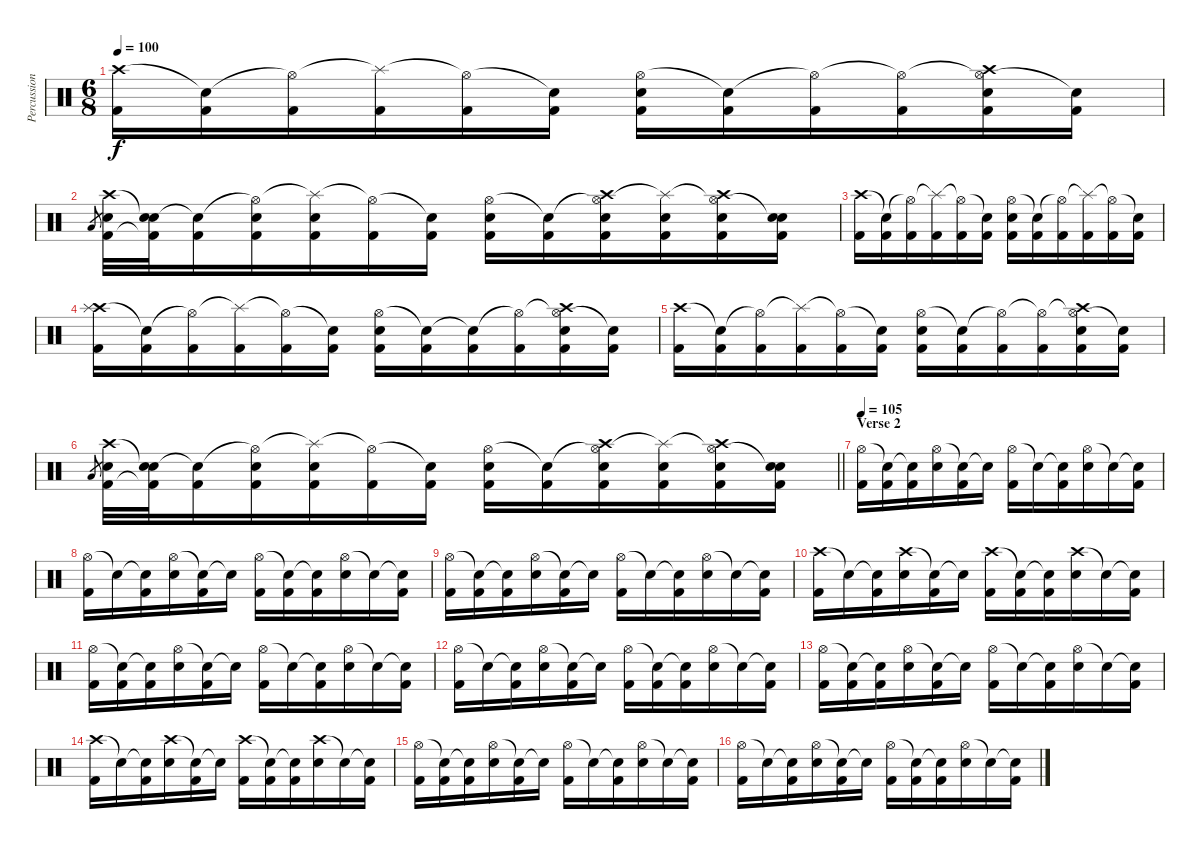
\track ("Percussion" "Percussion") {instrument percussion}
\staff {score}
\articulation defaults
\ts (6 8)
\tempo 100
\clef neutral
\ks c
("Crash high (hit)" "Kick (hit) 2").16{dy f} ("Snare (hit)"{t} "Kick (hit) 2").16 ("Hi-Hat (open)"{t} "Kick (hit) 2").16 ("Splash (hit)"{t} "Kick (hit) 2").16 ("Hi-Hat (open)"{t} "Kick (hit) 2").16 ("Snare (hit)"{t} "Kick (hit) 2").16 ("Hi-Hat (open)" "Electric Snare (hit)" "Kick (hit) 2").16 ("Snare (hit)"{t} "Kick (hit) 2").16 ("Hi-Hat (open)"{t} "Kick (hit) 2").16 ("Hi-Hat (open)"{t} "Kick (hit) 2").16 ("Hi-Hat (open)"{t} "Crash high (hit)" "Electric Snare (hit)" "Kick (hit) 2").16 ("Snare (hit)"{t} "Kick (hit) 2").16 |
"Low Tom (hit)".8{gr} ("Crash high (hit)" "Electric Snare (hit)" "Kick (hit) 2").32 ("Snare (hit)"{t} "Electric Snare (hit)" "Kick (hit) 2"{t}).32 ("Snare (hit)"{t} "Kick (hit) 2").16 ("Hi-Hat (open)"{t} "Electric Snare (hit)" "Kick (hit) 2").16 ("Splash (hit)"{t} "Electric Snare (hit)" "Kick (hit) 2").16 ("Hi-Hat (open)"{t} "Kick (hit) 2").16 ("Snare (hit)"{t} "Kick (hit) 2").16 ("Hi-Hat (open)" "Electric Snare (hit)" "Kick (hit) 2").16 ("Snare (hit)"{t} "Kick (hit) 2").16 ("Hi-Hat (open)"{t} "Crash high (hit)" "Electric Snare (hit)" "Kick (hit) 2").16 ("Splash (hit)"{t} "Electric Snare (hit)" "Kick (hit) 2").16 ("Hi-Hat (open)"{t} "Crash high (hit)" "Electric Snare (hit)" "Kick (hit) 2").16 ("Snare (hit)"{t} "Electric Snare (hit)" "Kick (hit) 2").16 |
("Crash high (hit)" "Kick (hit) 2").16 ("Snare (hit)"{t} "Kick (hit) 2").16 ("Hi-Hat (open)"{t} "Kick (hit) 2").16 ("Splash (hit)"{t} "Kick (hit) 2").16 ("Hi-Hat (open)"{t} "Kick (hit) 2").16 ("Snare (hit)"{t} "Kick (hit) 2").16 ("Hi-Hat (open)" "Electric Snare (hit)" "Kick (hit) 2").16 ("Snare (hit)"{t} "Kick (hit) 2").16 ("Hi-Hat (open)"{t} "Kick (hit) 2").16 ("Splash (hit)"{t} "Kick (hit) 2").16 ("Hi-Hat (open)"{t} "Kick (hit) 2").16 ("Snare (hit)"{t} "Kick (hit) 2").16 |
("Crash high (hit)" "Splash (hit)" "Kick (hit) 2").16 ("Snare (hit)"{t} "Kick (hit) 2").16 ("Hi-Hat (open)"{t} "Kick (hit) 2").16 ("Splash (hit)"{t} "Kick (hit) 2").16 ("Hi-Hat (open)"{t} "Kick (hit) 2").16 ("Snare (hit)"{t} "Kick (hit) 2").16 ("Hi-Hat (open)" "Electric Snare (hit)" "Kick (hit) 2").16 ("Snare (hit)"{t} "Kick (hit) 2").16 ("Snare (hit)"{t} "Kick (hit) 2").16 ("Hi-Hat (open)"{t} "Kick (hit) 2").16 ("Hi-Hat (open)"{t} "Crash high (hit)" "Electric Snare (hit)" "Kick (hit) 2").16 ("Snare (hit)"{t} "Kick (hit) 2").16 |
("Crash high (hit)" "Kick (hit) 2").16 ("Snare (hit)"{t} "Kick (hit) 2").16 ("Hi-Hat (open)"{t} "Kick (hit) 2").16 ("Splash (hit)"{t} "Kick (hit) 2").16 ("Hi-Hat (open)"{t} "Kick (hit) 2").16 ("Snare (hit)"{t} "Kick (hit) 2").16 ("Hi-Hat (open)" "Electric Snare (hit)" "Kick (hit) 2").16 ("Snare (hit)"{t} "Kick (hit) 2").16 ("Hi-Hat (open)"{t} "Kick (hit) 2").16 ("Hi-Hat (open)"{t} "Kick (hit) 2").16 ("Hi-Hat (open)"{t} "Crash high (hit)" "Electric Snare (hit)" "Kick (hit) 2").16 ("Snare (hit)"{t} "Kick (hit) 2").16 |
\barLineRight lightlight "Low Tom (hit)".8{gr}
("Crash high (hit)" "Electric Snare (hit)" "Kick (hit) 2").32 ("Snare (hit)"{t} "Electric Snare (hit)" "Kick (hit) 2"{t}).32 ("Snare (hit)"{t} "Kick (hit) 2").16 ("Hi-Hat (open)"{t} "Electric Snare (hit)" "Kick (hit) 2").16 ("Splash (hit)"{t} "Electric Snare (hit)" "Kick (hit) 2").16 ("Hi-Hat (open)"{t} "Kick (hit) 2").16 ("Snare (hit)"{t} "Kick (hit) 2").16 ("Hi-Hat (open)" "Electric Snare (hit)" "Kick (hit) 2").16 ("Snare (hit)"{t} "Kick (hit) 2").16 ("Hi-Hat (open)"{t} "Crash high (hit)" "Electric Snare (hit)" "Kick (hit) 2").16 ("Splash (hit)"{t} "Electric Snare (hit)" "Kick (hit) 2").16 ("Hi-Hat (open)"{t} "Crash high (hit)" "Electric Snare (hit)" "Kick (hit) 2").16 ("Snare (hit)"{t} "Electric Snare (hit)" "Kick (hit) 2").16 |
\section ("" "Verse 2")
\tempo 105
("Hi-Hat (open)" "Kick (hit) 2").16 ("Snare (hit)"{t} "Kick (hit) 2").16 ("Snare (hit)"{t} "Kick (hit) 2").16 ("Hi-Hat (open)" "Electric Snare (hit)").16 ("Snare (hit)"{t} "Kick (hit) 2").16 "Snare (hit)"{t}.16 ("Hi-Hat (open)" "Kick (hit) 2").16 "Snare (hit)"{t}.16 ("Snare (hit)"{t} "Kick (hit) 2").16 ("Hi-Hat (open)" "Electric Snare (hit)").16 "Snare (hit)"{t}.16 ("Snare (hit)"{t} "Kick (hit) 2").16 |
("Hi-Hat (open)" "Kick (hit) 2").16 "Snare (hit)"{t}.16 ("Snare (hit)"{t} "Kick (hit) 2").16 ("Hi-Hat (open)" "Electric Snare (hit)").16 ("Snare (hit)"{t} "Kick (hit) 2").16 "Snare (hit)"{t}.16 ("Hi-Hat (open)" "Kick (hit) 2").16 ("Snare (hit)"{t} "Kick (hit) 2").16 ("Snare (hit)"{t} "Kick (hit) 2").16 ("Hi-Hat (open)" "Electric Snare (hit)").16 "Snare (hit)"{t}.16 ("Snare (hit)"{t} "Kick (hit) 2").16 |
("Hi-Hat (open)" "Kick (hit) 2").16 ("Snare (hit)"{t} "Kick (hit) 2").16 ("Snare (hit)"{t} "Kick (hit) 2").16 ("Hi-Hat (open)" "Electric Snare (hit)").16 ("Snare (hit)"{t} "Kick (hit) 2").16 "Snare (hit)"{t}.16 ("Hi-Hat (open)" "Kick (hit) 2").16 "Snare (hit)"{t}.16 ("Snare (hit)"{t} "Kick (hit) 2").16 ("Hi-Hat (open)" "Electric Snare (hit)").16 "Snare (hit)"{t}.16 ("Snare (hit)"{t} "Kick (hit) 2").16 |
("Crash high (hit)" "Kick (hit) 2").16 "Snare (hit)"{t}.16 ("Snare (hit)"{t} "Kick (hit) 2").16 ("Crash high (hit)" "Electric Snare (hit)").16 ("Snare (hit)"{t} "Kick (hit) 2").16 "Snare (hit)"{t}.16 ("Crash high (hit)" "Kick (hit) 2").16 ("Snare (hit)"{t} "Kick (hit) 2").16 ("Snare (hit)"{t} "Kick (hit) 2").16 ("Crash high (hit)" "Electric Snare (hit)").16 "Snare (hit)"{t}.16 ("Snare (hit)"{t} "Kick (hit) 2").16 |
("Hi-Hat (open)" "Kick (hit) 2").16 ("Snare (hit)"{t} "Kick (hit) 2").16 ("Snare (hit)"{t} "Kick (hit) 2").16 ("Hi-Hat (open)" "Electric Snare (hit)").16 ("Snare (hit)"{t} "Kick (hit) 2").16 "Snare (hit)"{t}.16 ("Hi-Hat (open)" "Kick (hit) 2").16 "Snare (hit)"{t}.16 ("Snare (hit)"{t} "Kick (hit) 2").16 ("Hi-Hat (open)" "Electric Snare (hit)").16 "Snare (hit)"{t}.16 ("Snare (hit)"{t} "Kick (hit) 2").16 |
("Hi-Hat (open)" "Kick (hit) 2").16 "Snare (hit)"{t}.16 ("Snare (hit)"{t} "Kick (hit) 2").16 ("Hi-Hat (open)" "Electric Snare (hit)").16 ("Snare (hit)"{t} "Kick (hit) 2").16 "Snare (hit)"{t}.16 ("Hi-Hat (open)" "Kick (hit) 2").16 ("Snare (hit)"{t} "Kick (hit) 2").16 ("Snare (hit)"{t} "Kick (hit) 2").16 ("Hi-Hat (open)" "Electric Snare (hit)").16 "Snare (hit)"{t}.16 ("Snare (hit)"{t} "Kick (hit) 2").16 |
("Hi-Hat (open)" "Kick (hit) 2").16 ("Snare (hit)"{t} "Kick (hit) 2").16 ("Snare (hit)"{t} "Kick (hit) 2").16 ("Hi-Hat (open)" "Electric Snare (hit)").16 ("Snare (hit)"{t} "Kick (hit) 2").16 "Snare (hit)"{t}.16 ("Hi-Hat (open)" "Kick (hit) 2").16 "Snare (hit)"{t}.16 ("Snare (hit)"{t} "Kick (hit) 2").16 ("Hi-Hat (open)" "Electric Snare (hit)").16 "Snare (hit)"{t}.16 ("Snare (hit)"{t} "Kick (hit) 2").16 |
("Crash high (hit)" "Kick (hit) 2").16 "Snare (hit)"{t}.16 ("Snare (hit)"{t} "Kick (hit) 2").16 ("Crash high (hit)" "Electric Snare (hit)").16 ("Snare (hit)"{t} "Kick (hit) 2").16 "Snare (hit)"{t}.16 ("Crash high (hit)" "Kick (hit) 2").16 ("Snare (hit)"{t} "Kick (hit) 2").16 ("Snare (hit)"{t} "Kick (hit) 2").16 ("Crash high (hit)" "Electric Snare (hit)").16 "Snare (hit)"{t}.16 ("Snare (hit)"{t} "Kick (hit) 2").16 |
("Hi-Hat (open)" "Kick (hit) 2").16 ("Snare (hit)"{t} "Kick (hit) 2").16 ("Snare (hit)"{t} "Kick (hit) 2").16 ("Hi-Hat (open)" "Electric Snare (hit)").16 ("Snare (hit)"{t} "Kick (hit) 2").16 "Snare (hit)"{t}.16 ("Hi-Hat (open)" "Kick (hit) 2").16 "Snare (hit)"{t}.16 ("Snare (hit)"{t} "Kick (hit) 2").16 ("Hi-Hat (open)" "Electric Snare (hit)").16 "Snare (hit)"{t}.16 ("Snare (hit)"{t} "Kick (hit) 2").16 |
("Hi-Hat (open)" "Kick (hit) 2").16 "Snare (hit)"{t}.16 ("Snare (hit)"{t} "Kick (hit) 2").16 ("Hi-Hat (open)" "Electric Snare (hit)").16 ("Snare (hit)"{t} "Kick (hit) 2").16 "Snare (hit)"{t}.16 ("Hi-Hat (open)" "Kick (hit) 2").16 ("Snare (hit)"{t} "Kick (hit) 2").16 ("Snare (hit)"{t} "Kick (hit) 2").16 ("Hi-Hat (open)" "Electric Snare (hit)").16 "Snare (hit)"{t}.16 ("Snare (hit)"{t} "Kick (hit) 2").16
